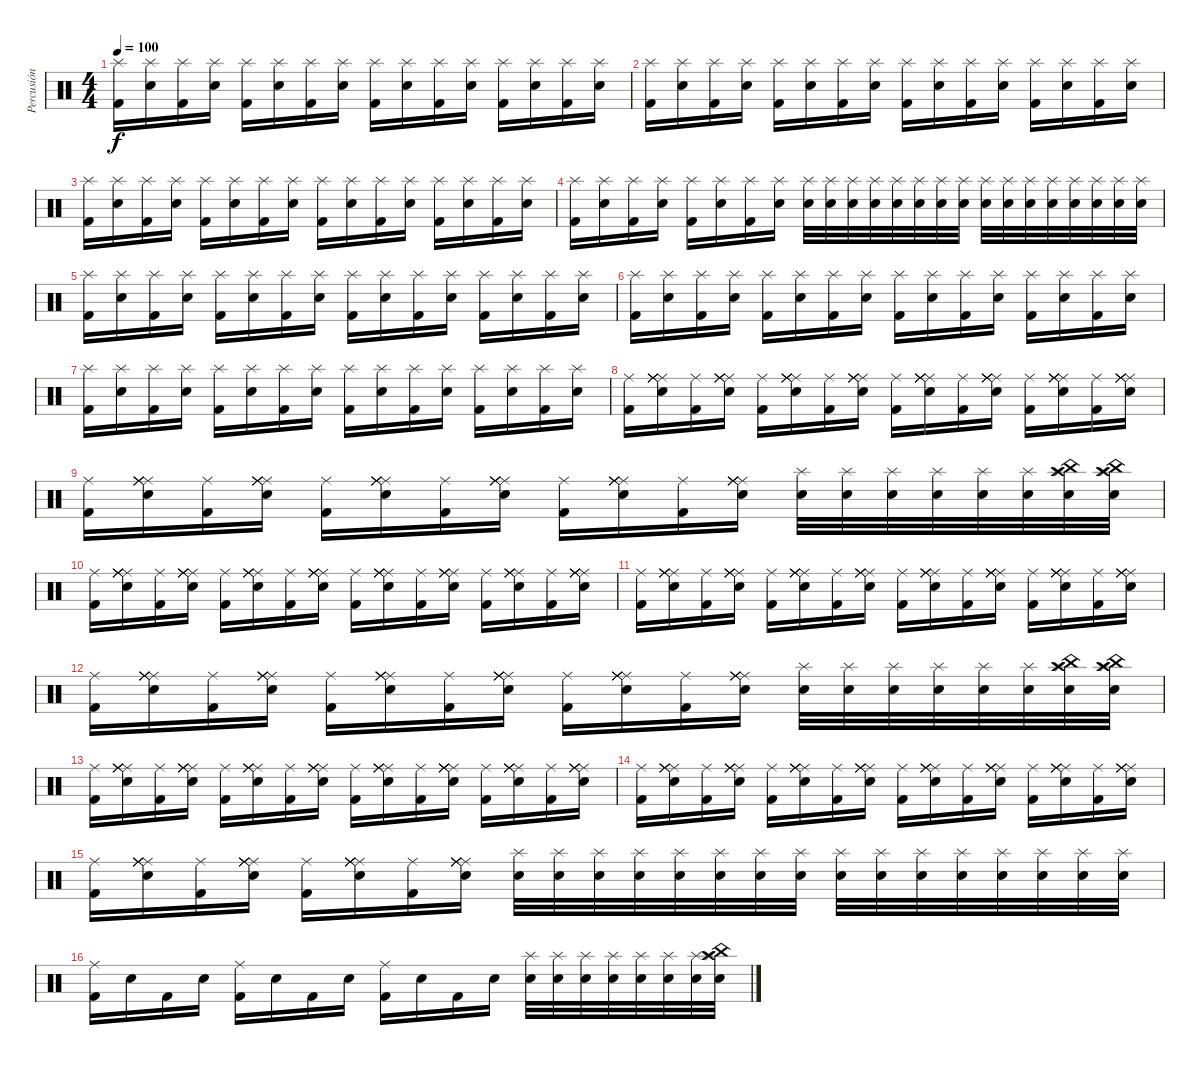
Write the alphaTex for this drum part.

\track ("Percusión" "Percusión") {instrument percussion}
\staff {score}
\articulation defaults
\ts (4 4)
\tempo 100
\clef neutral
\ks c
("Kick (hit) 2" "Splash (hit)").16{dy f} ("Snare (hit) 2" "Splash (hit)").16 ("Kick (hit) 2" "Splash (hit)").16 ("Snare (hit) 2" "Splash (hit)").16 ("Kick (hit) 2" "Splash (hit)").16 ("Snare (hit) 2" "Splash (hit)").16 ("Kick (hit) 2" "Splash (hit)").16 ("Snare (hit) 2" "Splash (hit)").16 ("Kick (hit) 2" "Splash (hit)").16 ("Snare (hit) 2" "Splash (hit)").16 ("Kick (hit) 2" "Splash (hit)").16 ("Snare (hit) 2" "Splash (hit)").16 ("Kick (hit) 2" "Splash (hit)").16 ("Snare (hit) 2" "Splash (hit)").16 ("Kick (hit) 2" "Splash (hit)").16 ("Snare (hit) 2" "Splash (hit)").16 |
("Kick (hit) 2" "Splash (hit)").16 ("Snare (hit) 2" "Splash (hit)").16 ("Kick (hit) 2" "Splash (hit)").16 ("Snare (hit) 2" "Splash (hit)").16 ("Kick (hit) 2" "Splash (hit)").16 ("Snare (hit) 2" "Splash (hit)").16 ("Kick (hit) 2" "Splash (hit)").16 ("Snare (hit) 2" "Splash (hit)").16 ("Kick (hit) 2" "Splash (hit)").16 ("Snare (hit) 2" "Splash (hit)").16 ("Kick (hit) 2" "Splash (hit)").16 ("Snare (hit) 2" "Splash (hit)").16 ("Kick (hit) 2" "Splash (hit)").16 ("Snare (hit) 2" "Splash (hit)").16 ("Kick (hit) 2" "Splash (hit)").16 ("Snare (hit) 2" "Splash (hit)").16 |
("Kick (hit) 2" "Splash (hit)").16 ("Snare (hit) 2" "Splash (hit)").16 ("Kick (hit) 2" "Splash (hit)").16 ("Snare (hit) 2" "Splash (hit)").16 ("Kick (hit) 2" "Splash (hit)").16 ("Snare (hit) 2" "Splash (hit)").16 ("Kick (hit) 2" "Splash (hit)").16 ("Snare (hit) 2" "Splash (hit)").16 ("Kick (hit) 2" "Splash (hit)").16 ("Snare (hit) 2" "Splash (hit)").16 ("Kick (hit) 2" "Splash (hit)").16 ("Snare (hit) 2" "Splash (hit)").16 ("Kick (hit) 2" "Splash (hit)").16 ("Snare (hit) 2" "Splash (hit)").16 ("Kick (hit) 2" "Splash (hit)").16 ("Snare (hit) 2" "Splash (hit)").16 |
("Kick (hit) 2" "Splash (hit)").16 ("Snare (hit) 2" "Splash (hit)").16 ("Kick (hit) 2" "Splash (hit)").16 ("Snare (hit) 2" "Splash (hit)").16 ("Kick (hit) 2" "Splash (hit)").16 ("Snare (hit) 2" "Splash (hit)").16 ("Kick (hit) 2" "Splash (hit)").16 ("Snare (hit) 2" "Splash (hit)").16 ("Snare (hit) 2" "Splash (hit)").32 ("Electric Snare (hit)" "Splash (hit)").32 ("Snare (hit) 2" "Splash (hit)").32 ("Electric Snare (hit)" "Splash (hit)").32 ("Snare (hit) 2" "Splash (hit)").32 ("Electric Snare (hit)" "Splash (hit)").32 ("Snare (hit) 2" "Splash (hit)").32 ("Electric Snare (hit)" "Splash (hit)").32 ("Snare (hit) 2" "Splash (hit)").32 ("Electric Snare (hit)" "Splash (hit)").32 ("Snare (hit) 2" "Splash (hit)").32 ("Electric Snare (hit)" "Splash (hit)").32 ("Snare (hit) 2" "Splash (hit)").32 ("Electric Snare (hit)" "Splash (hit)").32 ("Snare (hit) 2" "Splash (hit)").32 ("Electric Snare (hit)" "Splash (hit)").32 |
("Kick (hit) 2" "Splash (hit)").16 ("Snare (hit) 2" "Splash (hit)").16 ("Kick (hit) 2" "Splash (hit)").16 ("Snare (hit) 2" "Splash (hit)").16 ("Kick (hit) 2" "Splash (hit)").16 ("Snare (hit) 2" "Splash (hit)").16 ("Kick (hit) 2" "Splash (hit)").16 ("Snare (hit) 2" "Splash (hit)").16 ("Kick (hit) 2" "Splash (hit)").16 ("Snare (hit) 2" "Splash (hit)").16 ("Kick (hit) 2" "Splash (hit)").16 ("Snare (hit) 2" "Splash (hit)").16 ("Kick (hit) 2" "Splash (hit)").16 ("Snare (hit) 2" "Splash (hit)").16 ("Kick (hit) 2" "Splash (hit)").16 ("Snare (hit) 2" "Splash (hit)").16 |
("Kick (hit) 2" "Splash (hit)").16 ("Snare (hit) 2" "Splash (hit)").16 ("Kick (hit) 2" "Splash (hit)").16 ("Snare (hit) 2" "Splash (hit)").16 ("Kick (hit) 2" "Splash (hit)").16 ("Snare (hit) 2" "Splash (hit)").16 ("Kick (hit) 2" "Splash (hit)").16 ("Snare (hit) 2" "Splash (hit)").16 ("Kick (hit) 2" "Splash (hit)").16 ("Snare (hit) 2" "Splash (hit)").16 ("Kick (hit) 2" "Splash (hit)").16 ("Snare (hit) 2" "Splash (hit)").16 ("Kick (hit) 2" "Splash (hit)").16 ("Snare (hit) 2" "Splash (hit)").16 ("Kick (hit) 2" "Splash (hit)").16 ("Snare (hit) 2" "Splash (hit)").16 |
("Kick (hit) 2" "Splash (hit)").16 ("Snare (hit) 2" "Splash (hit)").16 ("Kick (hit) 2" "Splash (hit)").16 ("Snare (hit) 2" "Splash (hit)").16 ("Kick (hit) 2" "Splash (hit)").16 ("Snare (hit) 2" "Splash (hit)").16 ("Kick (hit) 2" "Splash (hit)").16 ("Snare (hit) 2" "Splash (hit)").16 ("Kick (hit) 2" "Splash (hit)").16 ("Snare (hit) 2" "Splash (hit)").16 ("Kick (hit) 2" "Splash (hit)").16 ("Snare (hit) 2" "Splash (hit)").16 ("Kick (hit) 2" "Splash (hit)").16 ("Snare (hit) 2" "Splash (hit)").16 ("Kick (hit) 2" "Splash (hit)").16 ("Snare (hit) 2" "Splash (hit)").16 |
("Kick (hit) 2" "Ride (middle)").16 ("Snare (hit) 2" "Ride (middle)" "Ride (middle)" "Ride (middle)" "Ride (middle)" "Ride (middle)").16 ("Kick (hit) 2" "Ride (middle)").16 ("Snare (hit) 2" "Ride (middle)" "Ride (middle)" "Ride (middle)" "Ride (middle)" "Ride (middle)").16 ("Kick (hit) 2" "Ride (middle)").16 ("Snare (hit) 2" "Ride (middle)" "Ride (middle)" "Ride (middle)" "Ride (middle)" "Ride (middle)").16 ("Kick (hit) 2" "Ride (middle)").16 ("Snare (hit) 2" "Ride (middle)" "Ride (middle)" "Ride (middle)" "Ride (middle)" "Ride (middle)").16 ("Kick (hit) 2" "Ride (middle)").16 ("Snare (hit) 2" "Ride (middle)" "Ride (middle)" "Ride (middle)" "Ride (middle)" "Ride (middle)").16 ("Kick (hit) 2" "Ride (middle)").16 ("Snare (hit) 2" "Ride (middle)" "Ride (middle)" "Ride (middle)" "Ride (middle)" "Ride (middle)").16 ("Kick (hit) 2" "Ride (middle)").16 ("Snare (hit) 2" "Ride (middle)" "Ride (middle)" "Ride (middle)" "Ride (middle)" "Ride (middle)").16 ("Kick (hit) 2" "Ride (middle)").16 ("Snare (hit) 2" "Ride (middle)" "Ride (middle)" "Ride (middle)" "Ride (middle)" "Ride (middle)").16 |
("Kick (hit) 2" "Ride (middle)").16 ("Snare (hit) 2" "Ride (middle)" "Ride (middle)" "Ride (middle)" "Ride (middle)" "Ride (middle)").16 ("Kick (hit) 2" "Ride (middle)").16 ("Snare (hit) 2" "Ride (middle)" "Ride (middle)" "Ride (middle)" "Ride (middle)" "Ride (middle)").16 ("Kick (hit) 2" "Ride (middle)").16 ("Snare (hit) 2" "Ride (middle)" "Ride (middle)" "Ride (middle)" "Ride (middle)" "Ride (middle)").16 ("Kick (hit) 2" "Ride (middle)").16 ("Snare (hit) 2" "Ride (middle)" "Ride (middle)" "Ride (middle)" "Ride (middle)" "Ride (middle)").16 ("Kick (hit) 2" "Ride (middle)").16 ("Snare (hit) 2" "Ride (middle)" "Ride (middle)" "Ride (middle)" "Ride (middle)" "Ride (middle)").16 ("Kick (hit) 2" "Ride (middle)").16 ("Snare (hit) 2" "Ride (middle)" "Ride (middle)" "Ride (middle)" "Ride (middle)" "Ride (middle)").16 ("Snare (hit) 2" "Splash (hit)").32 ("Electric Snare (hit)" "Splash (hit)").32 ("Snare (hit) 2" "Splash (hit)").32 ("Electric Snare (hit)" "Splash (hit)").32 ("Snare (hit) 2" "Splash (hit)").32 ("Electric Snare (hit)" "Splash (hit)").32 ("Snare (hit) 2" "Crash high (hit)" "China (hit)" "Splash (hit)").32 ("Electric Snare (hit)" "Crash high (hit)" "China (hit)" "Splash (hit)").32 |
("Kick (hit) 2" "Ride (middle)").16 ("Snare (hit) 2" "Ride (middle)" "Ride (middle)" "Ride (middle)" "Ride (middle)" "Ride (middle)").16 ("Kick (hit) 2" "Ride (middle)").16 ("Snare (hit) 2" "Ride (middle)" "Ride (middle)" "Ride (middle)" "Ride (middle)" "Ride (middle)").16 ("Kick (hit) 2" "Ride (middle)").16 ("Snare (hit) 2" "Ride (middle)" "Ride (middle)" "Ride (middle)" "Ride (middle)" "Ride (middle)").16 ("Kick (hit) 2" "Ride (middle)").16 ("Snare (hit) 2" "Ride (middle)" "Ride (middle)" "Ride (middle)" "Ride (middle)" "Ride (middle)").16 ("Kick (hit) 2" "Ride (middle)").16 ("Snare (hit) 2" "Ride (middle)" "Ride (middle)" "Ride (middle)" "Ride (middle)" "Ride (middle)").16 ("Kick (hit) 2" "Ride (middle)").16 ("Snare (hit) 2" "Ride (middle)" "Ride (middle)" "Ride (middle)" "Ride (middle)" "Ride (middle)").16 ("Kick (hit) 2" "Ride (middle)").16 ("Snare (hit) 2" "Ride (middle)" "Ride (middle)" "Ride (middle)" "Ride (middle)" "Ride (middle)").16 ("Kick (hit) 2" "Ride (middle)").16 ("Snare (hit) 2" "Ride (middle)" "Ride (middle)" "Ride (middle)" "Ride (middle)" "Ride (middle)").16 |
("Kick (hit) 2" "Ride (middle)").16 ("Snare (hit) 2" "Ride (middle)" "Ride (middle)" "Ride (middle)" "Ride (middle)" "Ride (middle)").16 ("Kick (hit) 2" "Ride (middle)").16 ("Snare (hit) 2" "Ride (middle)" "Ride (middle)" "Ride (middle)" "Ride (middle)" "Ride (middle)").16 ("Kick (hit) 2" "Ride (middle)").16 ("Snare (hit) 2" "Ride (middle)" "Ride (middle)" "Ride (middle)" "Ride (middle)" "Ride (middle)").16 ("Kick (hit) 2" "Ride (middle)").16 ("Snare (hit) 2" "Ride (middle)" "Ride (middle)" "Ride (middle)" "Ride (middle)" "Ride (middle)").16 ("Kick (hit) 2" "Ride (middle)").16 ("Snare (hit) 2" "Ride (middle)" "Ride (middle)" "Ride (middle)" "Ride (middle)" "Ride (middle)").16 ("Kick (hit) 2" "Ride (middle)").16 ("Snare (hit) 2" "Ride (middle)" "Ride (middle)" "Ride (middle)" "Ride (middle)" "Ride (middle)").16 ("Kick (hit) 2" "Ride (middle)").16 ("Snare (hit) 2" "Ride (middle)" "Ride (middle)" "Ride (middle)" "Ride (middle)" "Ride (middle)").16 ("Kick (hit) 2" "Ride (middle)").16 ("Snare (hit) 2" "Ride (middle)" "Ride (middle)" "Ride (middle)" "Ride (middle)" "Ride (middle)").16 |
("Kick (hit) 2" "Ride (middle)").16 ("Snare (hit) 2" "Ride (middle)" "Ride (middle)" "Ride (middle)" "Ride (middle)" "Ride (middle)").16 ("Kick (hit) 2" "Ride (middle)").16 ("Snare (hit) 2" "Ride (middle)" "Ride (middle)" "Ride (middle)" "Ride (middle)" "Ride (middle)").16 ("Kick (hit) 2" "Ride (middle)").16 ("Snare (hit) 2" "Ride (middle)" "Ride (middle)" "Ride (middle)" "Ride (middle)" "Ride (middle)").16 ("Kick (hit) 2" "Ride (middle)").16 ("Snare (hit) 2" "Ride (middle)" "Ride (middle)" "Ride (middle)" "Ride (middle)" "Ride (middle)").16 ("Kick (hit) 2" "Ride (middle)").16 ("Snare (hit) 2" "Ride (middle)" "Ride (middle)" "Ride (middle)" "Ride (middle)" "Ride (middle)").16 ("Kick (hit) 2" "Ride (middle)").16 ("Snare (hit) 2" "Ride (middle)" "Ride (middle)" "Ride (middle)" "Ride (middle)" "Ride (middle)").16 ("Snare (hit) 2" "Splash (hit)").32 ("Electric Snare (hit)" "Splash (hit)").32 ("Snare (hit) 2" "Splash (hit)").32 ("Electric Snare (hit)" "Splash (hit)").32 ("Snare (hit) 2" "Splash (hit)").32 ("Electric Snare (hit)" "Splash (hit)").32 ("Snare (hit) 2" "Crash high (hit)" "China (hit)" "Splash (hit)").32 ("Electric Snare (hit)" "Crash high (hit)" "China (hit)" "Splash (hit)").32 |
("Kick (hit) 2" "Ride (middle)").16 ("Snare (hit) 2" "Ride (middle)" "Ride (middle)" "Ride (middle)" "Ride (middle)" "Ride (middle)").16 ("Kick (hit) 2" "Ride (middle)").16 ("Snare (hit) 2" "Ride (middle)" "Ride (middle)" "Ride (middle)" "Ride (middle)" "Ride (middle)").16 ("Kick (hit) 2" "Ride (middle)").16 ("Snare (hit) 2" "Ride (middle)" "Ride (middle)" "Ride (middle)" "Ride (middle)" "Ride (middle)").16 ("Kick (hit) 2" "Ride (middle)").16 ("Snare (hit) 2" "Ride (middle)" "Ride (middle)" "Ride (middle)" "Ride (middle)" "Ride (middle)").16 ("Kick (hit) 2" "Ride (middle)").16 ("Snare (hit) 2" "Ride (middle)" "Ride (middle)" "Ride (middle)" "Ride (middle)" "Ride (middle)").16 ("Kick (hit) 2" "Ride (middle)").16 ("Snare (hit) 2" "Ride (middle)" "Ride (middle)" "Ride (middle)" "Ride (middle)" "Ride (middle)").16 ("Kick (hit) 2" "Ride (middle)").16 ("Snare (hit) 2" "Ride (middle)" "Ride (middle)" "Ride (middle)" "Ride (middle)" "Ride (middle)").16 ("Kick (hit) 2" "Ride (middle)").16 ("Snare (hit) 2" "Ride (middle)" "Ride (middle)" "Ride (middle)" "Ride (middle)" "Ride (middle)").16 |
("Kick (hit) 2" "Ride (middle)").16 ("Snare (hit) 2" "Ride (middle)" "Ride (middle)" "Ride (middle)" "Ride (middle)" "Ride (middle)").16 ("Kick (hit) 2" "Ride (middle)").16 ("Snare (hit) 2" "Ride (middle)" "Ride (middle)" "Ride (middle)" "Ride (middle)" "Ride (middle)").16 ("Kick (hit) 2" "Ride (middle)").16 ("Snare (hit) 2" "Ride (middle)" "Ride (middle)" "Ride (middle)" "Ride (middle)" "Ride (middle)").16 ("Kick (hit) 2" "Ride (middle)").16 ("Snare (hit) 2" "Ride (middle)" "Ride (middle)" "Ride (middle)" "Ride (middle)" "Ride (middle)").16 ("Kick (hit) 2" "Ride (middle)").16 ("Snare (hit) 2" "Ride (middle)" "Ride (middle)" "Ride (middle)" "Ride (middle)" "Ride (middle)").16 ("Kick (hit) 2" "Ride (middle)").16 ("Snare (hit) 2" "Ride (middle)" "Ride (middle)" "Ride (middle)" "Ride (middle)" "Ride (middle)").16 ("Kick (hit) 2" "Ride (middle)").16 ("Snare (hit) 2" "Ride (middle)" "Ride (middle)" "Ride (middle)" "Ride (middle)" "Ride (middle)").16 ("Kick (hit) 2" "Ride (middle)").16 ("Snare (hit) 2" "Ride (middle)" "Ride (middle)" "Ride (middle)" "Ride (middle)" "Ride (middle)").16 |
("Kick (hit) 2" "Ride (middle)").16 ("Snare (hit) 2" "Ride (middle)" "Ride (middle)" "Ride (middle)" "Ride (middle)" "Ride (middle)").16 ("Kick (hit) 2" "Ride (middle)").16 ("Snare (hit) 2" "Ride (middle)" "Ride (middle)" "Ride (middle)" "Ride (middle)" "Ride (middle)").16 ("Kick (hit) 2" "Ride (middle)").16 ("Snare (hit) 2" "Ride (middle)" "Ride (middle)" "Ride (middle)" "Ride (middle)" "Ride (middle)").16 ("Kick (hit) 2" "Ride (middle)").16 ("Snare (hit) 2" "Ride (middle)" "Ride (middle)" "Ride (middle)" "Ride (middle)" "Ride (middle)").16 ("Snare (hit) 2" "Splash (hit)").32 ("Electric Snare (hit)" "Splash (hit)").32 ("Snare (hit) 2" "Splash (hit)").32 ("Electric Snare (hit)" "Splash (hit)").32 ("Snare (hit) 2" "Splash (hit)").32 ("Electric Snare (hit)" "Splash (hit)").32 ("Snare (hit) 2" "Splash (hit)").32 ("Electric Snare (hit)" "Splash (hit)").32 ("Snare (hit) 2" "Splash (hit)").32 ("Electric Snare (hit)" "Splash (hit)").32 ("Snare (hit) 2" "Splash (hit)").32 ("Electric Snare (hit)" "Splash (hit)").32 ("Snare (hit) 2" "Splash (hit)").32 ("Electric Snare (hit)" "Splash (hit)").32 ("Snare (hit) 2" "Splash (hit)").32 ("Electric Snare (hit)" "Splash (hit)").32 |
("Kick (hit) 2" "Ride (middle)").16 "Snare (hit) 2".16 "Kick (hit) 2".16 "Snare (hit) 2".16 ("Kick (hit) 2" "Ride (middle)").16 "Snare (hit) 2".16 "Kick (hit) 2".16 "Snare (hit) 2".16 ("Kick (hit) 2" "Ride (middle)").16 "Snare (hit) 2".16 "Kick (hit) 2".16 "Snare (hit) 2".16 ("Snare (hit) 2" "Splash (hit)").32 ("Electric Snare (hit)" "Splash (hit)").32 ("Snare (hit) 2" "Splash (hit)").32 ("Electric Snare (hit)" "Splash (hit)").32 ("Snare (hit) 2" "Splash (hit)").32 ("Electric Snare (hit)" "Splash (hit)").32 ("Snare (hit) 2" "Splash (hit)").32 ("Electric Snare (hit)" "Crash high (hit)" "China (hit)" "Splash (hit)").32
